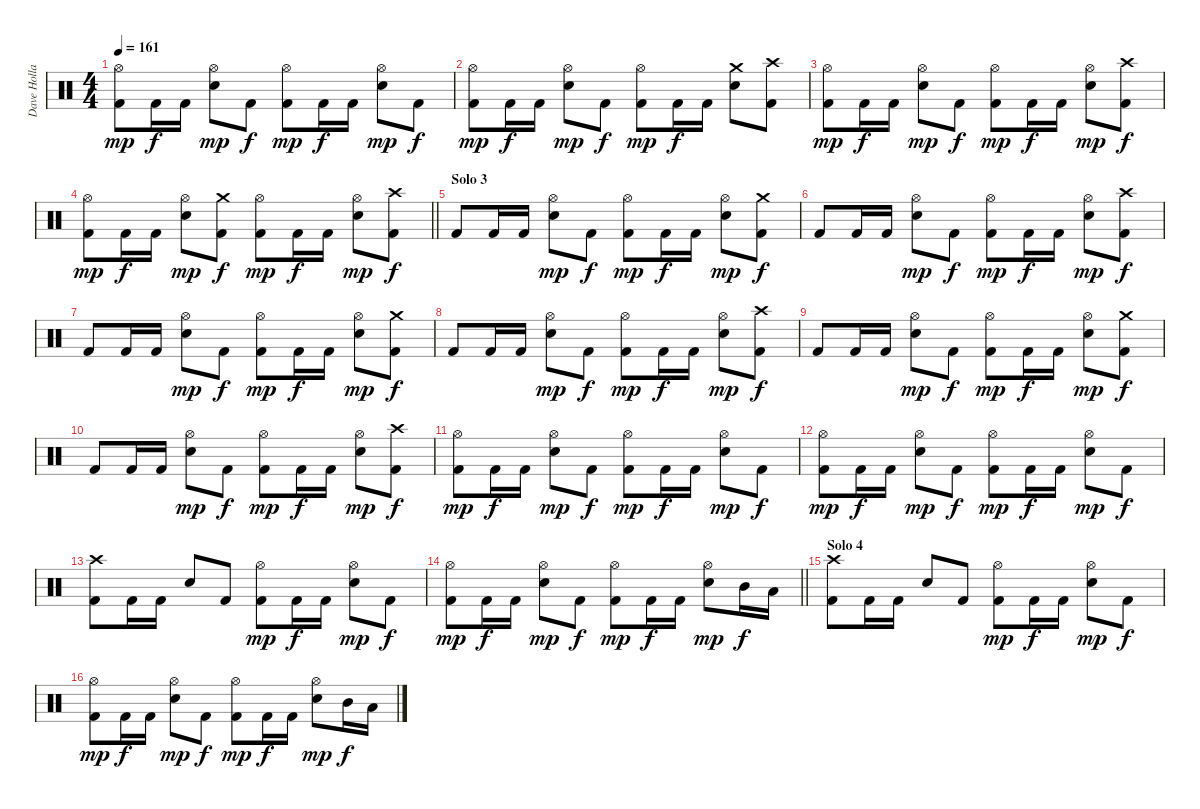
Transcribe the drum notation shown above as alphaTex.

\track ("Dave Holland" "Dave Holla") {instrument percussion}
\staff {score}
\articulation defaults
\ts (4 4)
\tempo 161
\clef neutral
\ks c
("Kick (hit) 2" "Hi-Hat (open)").8{dy mp} "Kick (hit) 2".16{dy f} "Kick (hit) 2".16 ("Hi-Hat (open)" "Snare (hit) 2").8{dy mp} "Kick (hit) 2".8{dy f} ("Kick (hit) 2" "Hi-Hat (open)").8{dy mp} "Kick (hit) 2".16{dy f} "Kick (hit) 2".16 ("Hi-Hat (open)" "Snare (hit) 2").8{dy mp} "Kick (hit) 2".8{dy f} |
("Kick (hit) 2" "Hi-Hat (open)").8{dy mp} "Kick (hit) 2".16{dy f} "Kick (hit) 2".16 ("Hi-Hat (open)" "Snare (hit) 2").8{dy mp} "Kick (hit) 2".8{dy f} ("Kick (hit) 2" "Hi-Hat (open)").8{dy mp} "Kick (hit) 2".16{dy f} "Kick (hit) 2".16 ("Crash medium (hit)" "Snare (hit) 2").8 ("Kick (hit) 2" "Crash high (hit)").8 |
("Kick (hit) 2" "Hi-Hat (open)").8{dy mp} "Kick (hit) 2".16{dy f} "Kick (hit) 2".16 ("Hi-Hat (open)" "Snare (hit) 2").8{dy mp} "Kick (hit) 2".8{dy f} ("Kick (hit) 2" "Hi-Hat (open)").8{dy mp} "Kick (hit) 2".16{dy f} "Kick (hit) 2".16 ("Hi-Hat (open)" "Snare (hit) 2").8{dy mp} ("Kick (hit) 2" "Crash high (hit)").8{dy f} |
\barLineRight lightlight
("Kick (hit) 2" "Hi-Hat (open)").8{dy mp} "Kick (hit) 2".16{dy f} "Kick (hit) 2".16 ("Hi-Hat (open)" "Snare (hit) 2").8{dy mp} ("Kick (hit) 2" "Crash medium (hit)").8{dy f} ("Kick (hit) 2" "Hi-Hat (open)").8{dy mp} "Kick (hit) 2".16{dy f} "Kick (hit) 2".16 ("Hi-Hat (open)" "Snare (hit) 2").8{dy mp} ("Kick (hit) 2" "Crash high (hit)").8{dy f} |
\section ("" "Solo 3")
"Kick (hit) 2".8 "Kick (hit) 2".16 "Kick (hit) 2".16 ("Hi-Hat (open)" "Snare (hit) 2").8{dy mp} "Kick (hit) 2".8{dy f} ("Kick (hit) 2" "Hi-Hat (open)").8{dy mp} "Kick (hit) 2".16{dy f} "Kick (hit) 2".16 ("Hi-Hat (open)" "Snare (hit) 2").8{dy mp} ("Kick (hit) 2" "Crash medium (hit)").8{dy f} |
"Kick (hit) 2".8 "Kick (hit) 2".16 "Kick (hit) 2".16 ("Hi-Hat (open)" "Snare (hit) 2").8{dy mp} "Kick (hit) 2".8{dy f} ("Kick (hit) 2" "Hi-Hat (open)").8{dy mp} "Kick (hit) 2".16{dy f} "Kick (hit) 2".16 ("Hi-Hat (open)" "Snare (hit) 2").8{dy mp} ("Kick (hit) 2" "Crash high (hit)").8{dy f} |
"Kick (hit) 2".8 "Kick (hit) 2".16 "Kick (hit) 2".16 ("Hi-Hat (open)" "Snare (hit) 2").8{dy mp} "Kick (hit) 2".8{dy f} ("Kick (hit) 2" "Hi-Hat (open)").8{dy mp} "Kick (hit) 2".16{dy f} "Kick (hit) 2".16 ("Hi-Hat (open)" "Snare (hit) 2").8{dy mp} ("Kick (hit) 2" "Crash medium (hit)").8{dy f} |
"Kick (hit) 2".8 "Kick (hit) 2".16 "Kick (hit) 2".16 ("Hi-Hat (open)" "Snare (hit) 2").8{dy mp} "Kick (hit) 2".8{dy f} ("Kick (hit) 2" "Hi-Hat (open)").8{dy mp} "Kick (hit) 2".16{dy f} "Kick (hit) 2".16 ("Hi-Hat (open)" "Snare (hit) 2").8{dy mp} ("Kick (hit) 2" "Crash high (hit)").8{dy f} |
"Kick (hit) 2".8 "Kick (hit) 2".16 "Kick (hit) 2".16 ("Hi-Hat (open)" "Snare (hit) 2").8{dy mp} "Kick (hit) 2".8{dy f} ("Kick (hit) 2" "Hi-Hat (open)").8{dy mp} "Kick (hit) 2".16{dy f} "Kick (hit) 2".16 ("Hi-Hat (open)" "Snare (hit) 2").8{dy mp} ("Kick (hit) 2" "Crash medium (hit)").8{dy f} |
"Kick (hit) 2".8 "Kick (hit) 2".16 "Kick (hit) 2".16 ("Hi-Hat (open)" "Snare (hit) 2").8{dy mp} "Kick (hit) 2".8{dy f} ("Kick (hit) 2" "Hi-Hat (open)").8{dy mp} "Kick (hit) 2".16{dy f} "Kick (hit) 2".16 ("Hi-Hat (open)" "Snare (hit) 2").8{dy mp} ("Kick (hit) 2" "Crash high (hit)").8{dy f} |
("Kick (hit) 2" "Hi-Hat (open)").8{dy mp} "Kick (hit) 2".16{dy f} "Kick (hit) 2".16 ("Hi-Hat (open)" "Snare (hit) 2").8{dy mp} "Kick (hit) 2".8{dy f} ("Kick (hit) 2" "Hi-Hat (open)").8{dy mp} "Kick (hit) 2".16{dy f} "Kick (hit) 2".16 ("Hi-Hat (open)" "Snare (hit) 2").8{dy mp} "Kick (hit) 2".8{dy f} |
("Kick (hit) 2" "Hi-Hat (open)").8{dy mp} "Kick (hit) 2".16{dy f} "Kick (hit) 2".16 ("Hi-Hat (open)" "Snare (hit) 2").8{dy mp} "Kick (hit) 2".8{dy f} ("Kick (hit) 2" "Hi-Hat (open)").8{dy mp} "Kick (hit) 2".16{dy f} "Kick (hit) 2".16 ("Hi-Hat (open)" "Snare (hit) 2").8{dy mp} "Kick (hit) 2".8{dy f} |
("Kick (hit) 2" "Crash high (hit)").8 "Kick (hit) 2".16 "Kick (hit) 2".16 "Snare (hit) 2".8 "Kick (hit) 2".8 ("Kick (hit) 2" "Hi-Hat (open)").8{dy mp} "Kick (hit) 2".16{dy f} "Kick (hit) 2".16 ("Hi-Hat (open)" "Snare (hit) 2").8{dy mp} "Kick (hit) 2".8{dy f} |
\barLineRight lightlight
("Kick (hit) 2" "Hi-Hat (open)").8{dy mp} "Kick (hit) 2".16{dy f} "Kick (hit) 2".16 ("Hi-Hat (open)" "Snare (hit) 2").8{dy mp} "Kick (hit) 2".8{dy f} ("Kick (hit) 2" "Hi-Hat (open)").8{dy mp} "Kick (hit) 2".16{dy f} "Kick (hit) 2".16 ("Hi-Hat (open)" "Snare (hit) 2").8{dy mp} "Mid Tom (hit)".16{dy f} "Low Tom (hit)".16 |
\section ("" "Solo 4")
("Kick (hit) 2" "Crash high (hit)").8 "Kick (hit) 2".16 "Kick (hit) 2".16 "Snare (hit) 2".8 "Kick (hit) 2".8 ("Kick (hit) 2" "Hi-Hat (open)").8{dy mp} "Kick (hit) 2".16{dy f} "Kick (hit) 2".16 ("Hi-Hat (open)" "Snare (hit) 2").8{dy mp} "Kick (hit) 2".8{dy f} |
("Kick (hit) 2" "Hi-Hat (open)").8{dy mp} "Kick (hit) 2".16{dy f} "Kick (hit) 2".16 ("Hi-Hat (open)" "Snare (hit) 2").8{dy mp} "Kick (hit) 2".8{dy f} ("Kick (hit) 2" "Hi-Hat (open)").8{dy mp} "Kick (hit) 2".16{dy f} "Kick (hit) 2".16 ("Hi-Hat (open)" "Snare (hit) 2").8{dy mp} "Mid Tom (hit)".16{dy f} "Low Tom (hit)".16
